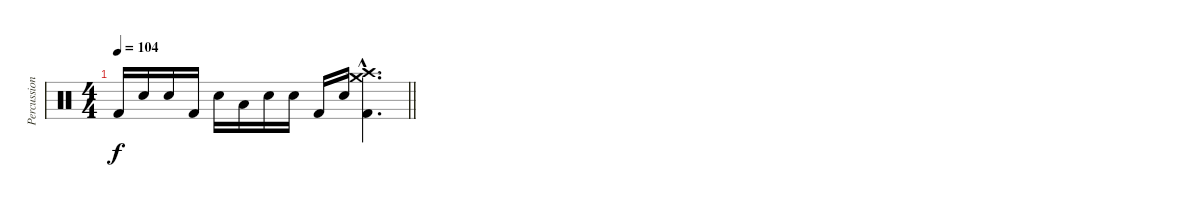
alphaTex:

\track ("Percussions" "Percussion") {instrument percussion}
\staff {score}
\articulation defaults
\ts (4 4)
\tempo 104
\clef neutral
\barLineRight lightlight
\ks c "Kick (hit) 2".16{dy f} "Electric Snare (hit)".16 "Electric Snare (hit)".16 "Kick (hit) 2".16 "Electric Snare (hit)".16 "Low Tom (hit)".16 "Electric Snare (hit)".16 "Electric Snare (hit)".16 "Kick (hit) 2".16 "Electric Snare (hit)".16
("Crash high (hit)"{hac} "Crash medium (hit)"{hac} "Kick (hit) 2"{hac}).4{d}
